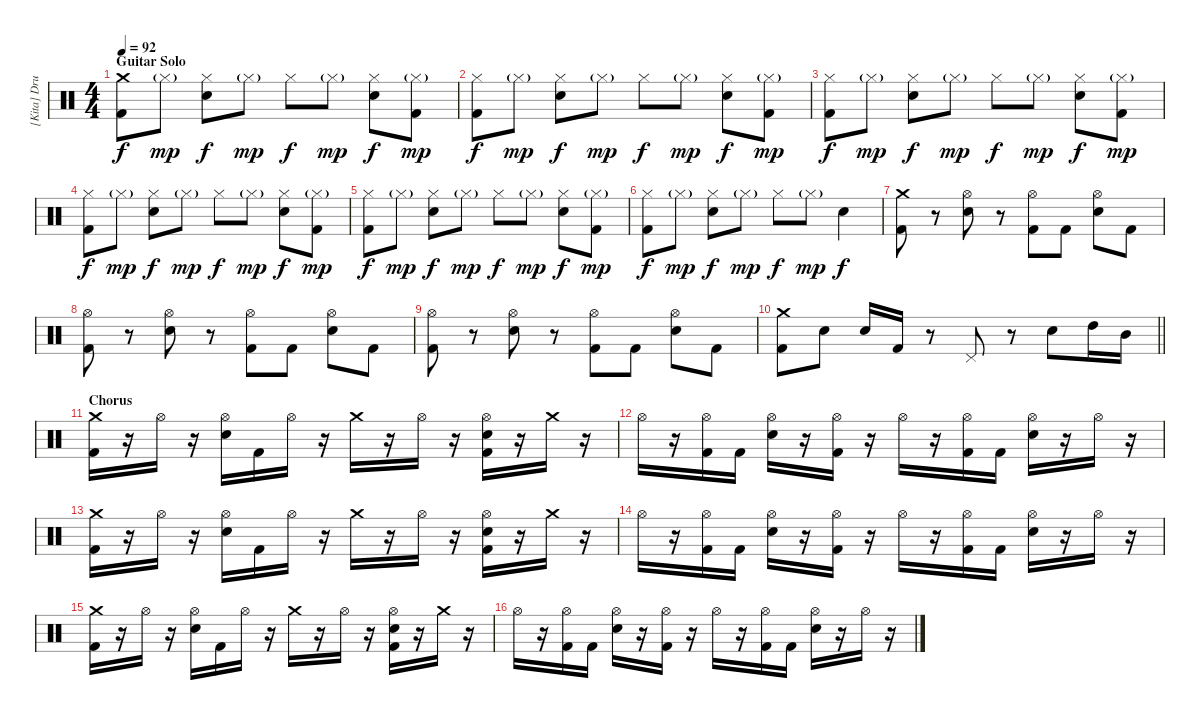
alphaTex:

\track ("[Kita] Drum" "[Kita] Dru") {instrument percussion}
\staff {score}
\articulation defaults
\ts (4 4)
\section ("" "Guitar Solo")
\tempo 92
\clef neutral
\ks c
("Kick (hit) 2" "Crash medium (hit)").8{dy f} "Hi-Hat (closed)"{g}.8{dy mp} ("Hi-Hat (closed)" "Electric Snare (hit)").8{dy f} "Hi-Hat (closed)"{g}.8{dy mp} "Hi-Hat (closed)".8{dy f} "Hi-Hat (closed)"{g}.8{dy mp} ("Hi-Hat (closed)" "Electric Snare (hit)").8{dy f} ("Kick (hit) 2" "Hi-Hat (closed)"{g}).8{dy mp} |
("Kick (hit) 2" "Hi-Hat (closed)").8{dy f} "Hi-Hat (closed)"{g}.8{dy mp} ("Hi-Hat (closed)" "Electric Snare (hit)").8{dy f} "Hi-Hat (closed)"{g}.8{dy mp} "Hi-Hat (closed)".8{dy f} "Hi-Hat (closed)"{g}.8{dy mp} ("Hi-Hat (closed)" "Electric Snare (hit)").8{dy f} ("Kick (hit) 2" "Hi-Hat (closed)"{g}).8{dy mp} |
("Kick (hit) 2" "Hi-Hat (closed)").8{dy f} "Hi-Hat (closed)"{g}.8{dy mp} ("Hi-Hat (closed)" "Electric Snare (hit)").8{dy f} "Hi-Hat (closed)"{g}.8{dy mp} "Hi-Hat (closed)".8{dy f} "Hi-Hat (closed)"{g}.8{dy mp} ("Hi-Hat (closed)" "Electric Snare (hit)").8{dy f} ("Kick (hit) 2" "Hi-Hat (closed)"{g}).8{dy mp} |
("Kick (hit) 2" "Hi-Hat (closed)").8{dy f} "Hi-Hat (closed)"{g}.8{dy mp} ("Hi-Hat (closed)" "Electric Snare (hit)").8{dy f} "Hi-Hat (closed)"{g}.8{dy mp} "Hi-Hat (closed)".8{dy f} "Hi-Hat (closed)"{g}.8{dy mp} ("Hi-Hat (closed)" "Electric Snare (hit)").8{dy f} ("Kick (hit) 2" "Hi-Hat (closed)"{g}).8{dy mp} |
("Kick (hit) 2" "Hi-Hat (closed)").8{dy f} "Hi-Hat (closed)"{g}.8{dy mp} ("Hi-Hat (closed)" "Electric Snare (hit)").8{dy f} "Hi-Hat (closed)"{g}.8{dy mp} "Hi-Hat (closed)".8{dy f} "Hi-Hat (closed)"{g}.8{dy mp} ("Hi-Hat (closed)" "Electric Snare (hit)").8{dy f} ("Kick (hit) 2" "Hi-Hat (closed)"{g}).8{dy mp} |
("Kick (hit) 2" "Hi-Hat (closed)").8{dy f} "Hi-Hat (closed)"{g}.8{dy mp} ("Hi-Hat (closed)" "Electric Snare (hit)").8{dy f} "Hi-Hat (closed)"{g}.8{dy mp} "Hi-Hat (closed)".8{dy f} "Hi-Hat (closed)"{g}.8{dy mp} "Electric Snare (hit)".4{dy f} |
("Kick (hit) 2" "Crash medium (hit)").8 r.8 ("Hi-Hat (open)" "Electric Snare (hit)").8 r.8 ("Kick (hit) 2" "Hi-Hat (open)").8 "Kick (hit) 2".8 ("Hi-Hat (open)" "Electric Snare (hit)").8 "Kick (hit) 2".8 |
("Kick (hit) 2" "Hi-Hat (open)").8 r.8 ("Hi-Hat (open)" "Electric Snare (hit)").8 r.8 ("Kick (hit) 2" "Hi-Hat (open)").8 "Kick (hit) 2".8 ("Hi-Hat (open)" "Electric Snare (hit)").8 "Kick (hit) 2".8 |
("Kick (hit) 2" "Hi-Hat (open)").8 r.8 ("Hi-Hat (open)" "Electric Snare (hit)").8 r.8 ("Kick (hit) 2" "Hi-Hat (open)").8 "Kick (hit) 2".8 ("Hi-Hat (open)" "Electric Snare (hit)").8 "Kick (hit) 2".8 |
\barLineRight lightlight
("Kick (hit) 2" "Crash medium (hit)").8 "Electric Snare (hit)".8 "Electric Snare (hit)".16 "Kick (hit) 2".16 r.8 "Pedal Hi-Hat (hit)".8 r.8 "Electric Snare (hit)".8 "High Tom (hit)".16 "Mid Tom (hit)".16 |
\section ("" "Chorus")
("Kick (hit) 2" "Crash medium (hit)").16 r.16 "Hi-Hat (open)".16 r.16 ("Hi-Hat (open)" "Electric Snare (hit)").16 "Kick (hit) 2".16 "Hi-Hat (open)".16 r.16 "Crash medium (hit)".16 r.16 "Hi-Hat (open)".16 r.16 ("Kick (hit) 2" "Hi-Hat (open)" "Electric Snare (hit)").16 r.16 "Crash medium (hit)".16 r.16 |
"Hi-Hat (open)".16 r.16 ("Kick (hit) 2" "Hi-Hat (open)").16 "Kick (hit) 2".16 ("Hi-Hat (open)" "Electric Snare (hit)").16 r.16 ("Kick (hit) 2" "Hi-Hat (open)").16 r.16 "Hi-Hat (open)".16 r.16 ("Kick (hit) 2" "Hi-Hat (open)").16 "Kick (hit) 2".16 ("Hi-Hat (open)" "Electric Snare (hit)").16 r.16 "Hi-Hat (open)".16 r.16 |
("Kick (hit) 2" "Crash medium (hit)").16 r.16 "Hi-Hat (open)".16 r.16 ("Hi-Hat (open)" "Electric Snare (hit)").16 "Kick (hit) 2".16 "Hi-Hat (open)".16 r.16 "Crash medium (hit)".16 r.16 "Hi-Hat (open)".16 r.16 ("Kick (hit) 2" "Hi-Hat (open)" "Electric Snare (hit)").16 r.16 "Crash medium (hit)".16 r.16 |
"Hi-Hat (open)".16 r.16 ("Kick (hit) 2" "Hi-Hat (open)").16 "Kick (hit) 2".16 ("Hi-Hat (open)" "Electric Snare (hit)").16 r.16 ("Kick (hit) 2" "Hi-Hat (open)").16 r.16 "Hi-Hat (open)".16 r.16 ("Kick (hit) 2" "Hi-Hat (open)").16 "Kick (hit) 2".16 ("Hi-Hat (open)" "Electric Snare (hit)").16 r.16 "Hi-Hat (open)".16 r.16 |
("Kick (hit) 2" "Crash medium (hit)").16 r.16 "Hi-Hat (open)".16 r.16 ("Hi-Hat (open)" "Electric Snare (hit)").16 "Kick (hit) 2".16 "Hi-Hat (open)".16 r.16 "Crash medium (hit)".16 r.16 "Hi-Hat (open)".16 r.16 ("Kick (hit) 2" "Hi-Hat (open)" "Electric Snare (hit)").16 r.16 "Crash medium (hit)".16 r.16 |
"Hi-Hat (open)".16 r.16 ("Kick (hit) 2" "Hi-Hat (open)").16 "Kick (hit) 2".16 ("Hi-Hat (open)" "Electric Snare (hit)").16 r.16 ("Kick (hit) 2" "Hi-Hat (open)").16 r.16 "Hi-Hat (open)".16 r.16 ("Kick (hit) 2" "Hi-Hat (open)").16 "Kick (hit) 2".16 ("Hi-Hat (open)" "Electric Snare (hit)").16 r.16 "Hi-Hat (open)".16 r.16
